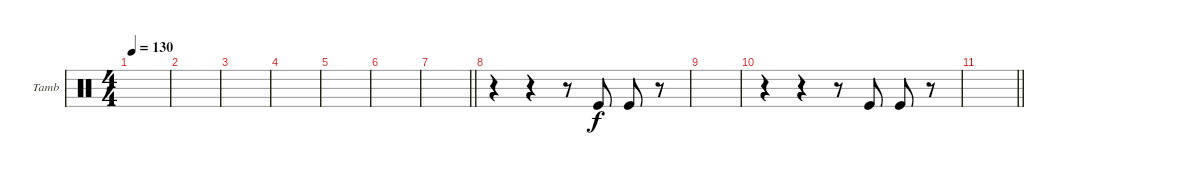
\defaultSystemsLayout 4
\bracketExtendMode groupsimilarinstruments
\firstSystemTrackNameOrientation horizontal
\otherSystemsTrackNameOrientation horizontal
\track ("Tambourine" "Tamb") {instrument percussion}
\staff {score}
\articulation defaults
\ts (4 4)
\tempo 130
\clef neutral
\scale
0.333333
\ks aminor
|
\scale
0.333333 |
\scale
0.333333 |
\scale
0.333333 |
\scale
0.333333 |
\scale
0.333333 |
\scale
0.333333
\barLineRight lightlight
|
\scale
0.333333 r.4 r.4 r.8 "Kick (hit)".8 "Kick (hit)".8 r.8 |
\scale
0.333333 |
\scale
0.333333 r.4 r.4 r.8 "Kick (hit)".8 "Kick (hit)".8 r.8 |
\scale
0.333333
\barLineRight lightlight
|
\scale
0.333333 |
\scale
0.333333 |
\scale
0.333333 |
\scale
0.333333 |
\scale
0.333333
